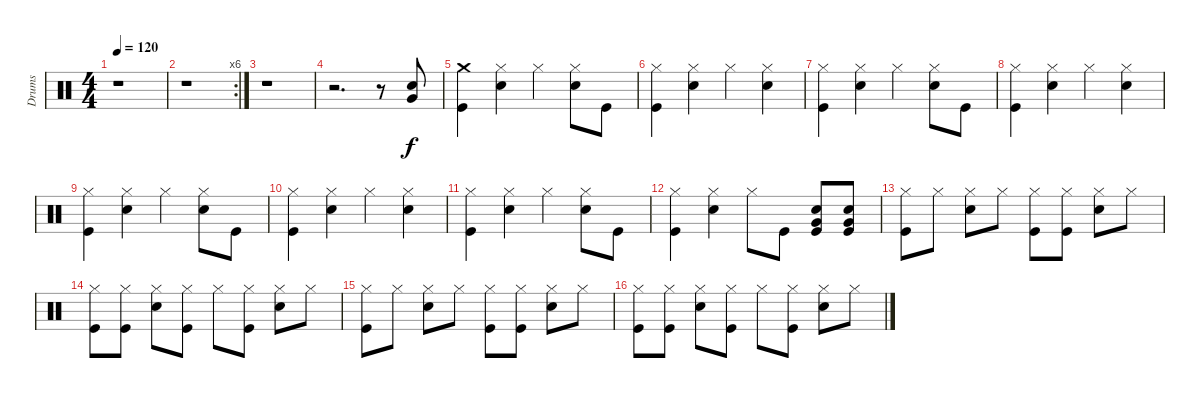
\track ("Drums" "Drums") {instrument percussion}
\staff {score}
\articulation defaults
\ts (4 4)
\tempo 120
\clef neutral
\ks c
r.1{dy f} |
\rc 6
r.1 |
r.1 |
r.2{d} r.8 ("Snare (hit) 2" "Very Low Tom (hit)").8 |
("Crash medium (hit)" "Kick (hit)").4 ("Hi-Hat (closed)" "Snare (hit) 2").4 "Hi-Hat (closed)".4 ("Hi-Hat (closed)" "Snare (hit) 2").8 "Kick (hit)".8 |
("Hi-Hat (closed)" "Kick (hit)").4 ("Hi-Hat (closed)" "Snare (hit) 2").4 "Hi-Hat (closed)".4 ("Hi-Hat (closed)" "Snare (hit) 2").4 |
("Hi-Hat (closed)" "Kick (hit)").4 ("Hi-Hat (closed)" "Snare (hit) 2").4 "Hi-Hat (closed)".4 ("Hi-Hat (closed)" "Snare (hit) 2").8 "Kick (hit)".8 |
("Hi-Hat (closed)" "Kick (hit)").4 ("Hi-Hat (closed)" "Snare (hit) 2").4 "Hi-Hat (closed)".4 ("Hi-Hat (closed)" "Snare (hit) 2").4 |
("Hi-Hat (closed)" "Kick (hit)").4 ("Hi-Hat (closed)" "Snare (hit) 2").4 "Hi-Hat (closed)".4 ("Hi-Hat (closed)" "Snare (hit) 2").8 "Kick (hit)".8 |
("Hi-Hat (closed)" "Kick (hit)").4 ("Hi-Hat (closed)" "Snare (hit) 2").4 "Hi-Hat (closed)".4 ("Hi-Hat (closed)" "Snare (hit) 2").4 |
("Hi-Hat (closed)" "Kick (hit)").4 ("Hi-Hat (closed)" "Snare (hit) 2").4 "Hi-Hat (closed)".4 ("Hi-Hat (closed)" "Snare (hit) 2").8 "Kick (hit)".8 |
("Hi-Hat (closed)" "Kick (hit)").4 ("Hi-Hat (closed)" "Snare (hit) 2").4 "Hi-Hat (closed)".8 "Kick (hit)".8 ("Snare (hit) 2" "Very Low Tom (hit)" "Kick (hit)").8 ("Snare (hit) 2" "Very Low Tom (hit)" "Kick (hit)").8 |
("Hi-Hat (closed)" "Kick (hit)").8 "Hi-Hat (closed)".8 ("Hi-Hat (closed)" "Snare (hit) 2").8 "Hi-Hat (closed)".8 ("Hi-Hat (closed)" "Kick (hit)").8 ("Hi-Hat (closed)" "Kick (hit)").8 ("Hi-Hat (closed)" "Snare (hit) 2").8 "Hi-Hat (closed)".8 |
("Hi-Hat (closed)" "Kick (hit)").8 ("Hi-Hat (closed)" "Kick (hit)").8 ("Hi-Hat (closed)" "Snare (hit) 2").8 ("Hi-Hat (closed)" "Kick (hit)").8 "Hi-Hat (closed)".8 ("Hi-Hat (closed)" "Kick (hit)").8 ("Hi-Hat (closed)" "Snare (hit) 2").8 "Hi-Hat (closed)".8 |
("Hi-Hat (closed)" "Kick (hit)").8 "Hi-Hat (closed)".8 ("Hi-Hat (closed)" "Snare (hit) 2").8 "Hi-Hat (closed)".8 ("Hi-Hat (closed)" "Kick (hit)").8 ("Hi-Hat (closed)" "Kick (hit)").8 ("Hi-Hat (closed)" "Snare (hit) 2").8 "Hi-Hat (closed)".8 |
("Hi-Hat (closed)" "Kick (hit)").8 ("Hi-Hat (closed)" "Kick (hit)").8 ("Hi-Hat (closed)" "Snare (hit) 2").8 ("Hi-Hat (closed)" "Kick (hit)").8 "Hi-Hat (closed)".8 ("Hi-Hat (closed)" "Kick (hit)").8 ("Hi-Hat (closed)" "Snare (hit) 2").8 "Hi-Hat (closed)".8
